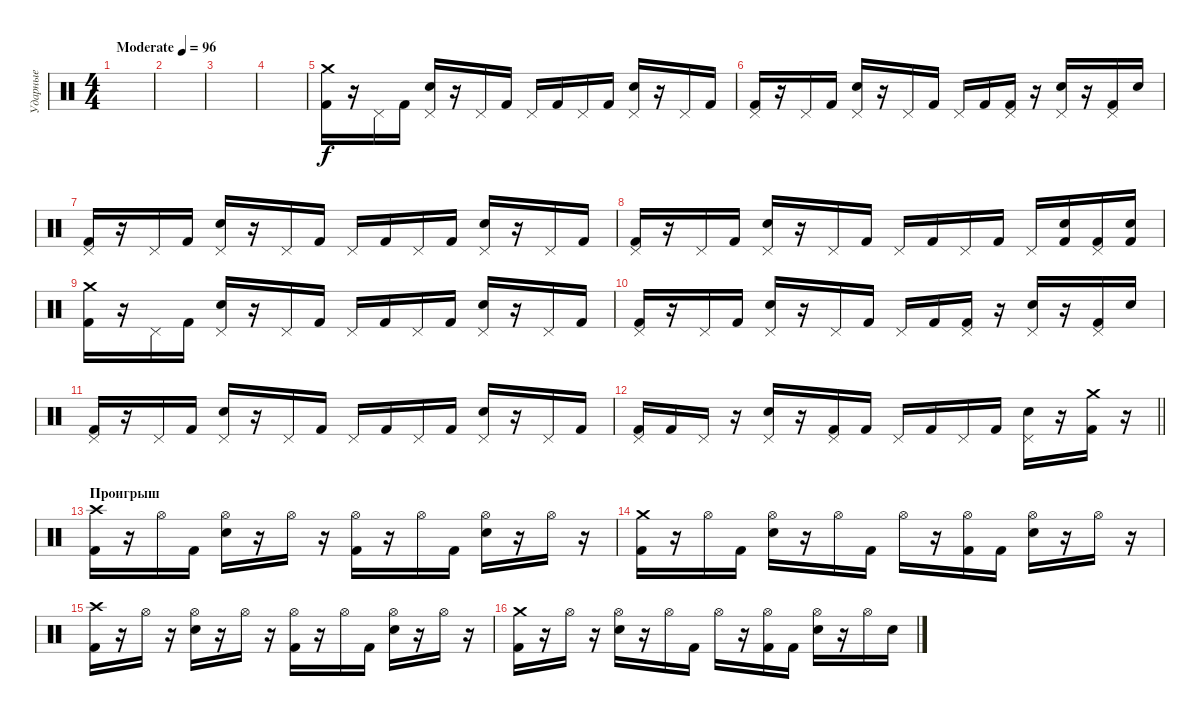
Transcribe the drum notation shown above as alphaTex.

\track ("Ударные" "Ударные") {instrument percussion}
\staff {score}
\articulation defaults
\ts (4 4)
\tempo (96 "Moderate")
\clef neutral
\ks c
|
|
|
|
("Crash medium (hit)" "Kick (hit) 2").16 r.16 "Pedal Hi-Hat (hit)".16 "Kick (hit) 2".16 ("Pedal Hi-Hat (hit)" "Electric Snare (hit)").16 r.16 "Pedal Hi-Hat (hit)".16 "Kick (hit) 2".16 "Pedal Hi-Hat (hit)".16 "Kick (hit) 2".16 "Pedal Hi-Hat (hit)".16 "Kick (hit) 2".16 ("Pedal Hi-Hat (hit)" "Electric Snare (hit)").16 r.16 "Pedal Hi-Hat (hit)".16 "Kick (hit) 2".16 |
("Pedal Hi-Hat (hit)" "Kick (hit) 2").16 r.16 "Pedal Hi-Hat (hit)".16 "Kick (hit) 2".16 ("Pedal Hi-Hat (hit)" "Electric Snare (hit)").16 r.16 "Pedal Hi-Hat (hit)".16 "Kick (hit) 2".16 "Pedal Hi-Hat (hit)".16 "Kick (hit) 2".16 ("Pedal Hi-Hat (hit)" "Kick (hit) 2").16 r.16 ("Pedal Hi-Hat (hit)" "Electric Snare (hit)").16 r.16 ("Pedal Hi-Hat (hit)" "Kick (hit) 2").16 "Electric Snare (hit)".16 |
("Pedal Hi-Hat (hit)" "Kick (hit) 2").16 r.16 "Pedal Hi-Hat (hit)".16 "Kick (hit) 2".16 ("Pedal Hi-Hat (hit)" "Electric Snare (hit)").16 r.16 "Pedal Hi-Hat (hit)".16 "Kick (hit) 2".16 "Pedal Hi-Hat (hit)".16 "Kick (hit) 2".16 "Pedal Hi-Hat (hit)".16 "Kick (hit) 2".16 ("Pedal Hi-Hat (hit)" "Electric Snare (hit)").16 r.16 "Pedal Hi-Hat (hit)".16 "Kick (hit) 2".16 |
("Pedal Hi-Hat (hit)" "Kick (hit) 2").16 r.16 "Pedal Hi-Hat (hit)".16 "Kick (hit) 2".16 ("Pedal Hi-Hat (hit)" "Electric Snare (hit)").16 r.16 "Pedal Hi-Hat (hit)".16 "Kick (hit) 2".16 "Pedal Hi-Hat (hit)".16 "Kick (hit) 2".16 "Pedal Hi-Hat (hit)".16 "Kick (hit) 2".16 "Pedal Hi-Hat (hit)".16 ("Kick (hit) 2" "Electric Snare (hit)").16 ("Pedal Hi-Hat (hit)" "Kick (hit) 2").16 ("Kick (hit) 2" "Electric Snare (hit)").16 |
("Crash medium (hit)" "Kick (hit) 2").16 r.16 "Pedal Hi-Hat (hit)".16 "Kick (hit) 2".16 ("Pedal Hi-Hat (hit)" "Electric Snare (hit)").16 r.16 "Pedal Hi-Hat (hit)".16 "Kick (hit) 2".16 "Pedal Hi-Hat (hit)".16 "Kick (hit) 2".16 "Pedal Hi-Hat (hit)".16 "Kick (hit) 2".16 ("Pedal Hi-Hat (hit)" "Electric Snare (hit)").16 r.16 "Pedal Hi-Hat (hit)".16 "Kick (hit) 2".16 |
("Pedal Hi-Hat (hit)" "Kick (hit) 2").16 r.16 "Pedal Hi-Hat (hit)".16 "Kick (hit) 2".16 ("Pedal Hi-Hat (hit)" "Electric Snare (hit)").16 r.16 "Pedal Hi-Hat (hit)".16 "Kick (hit) 2".16 "Pedal Hi-Hat (hit)".16 "Kick (hit) 2".16 ("Pedal Hi-Hat (hit)" "Kick (hit) 2").16 r.16 ("Pedal Hi-Hat (hit)" "Electric Snare (hit)").16 r.16 ("Pedal Hi-Hat (hit)" "Kick (hit) 2").16 "Electric Snare (hit)".16 |
("Pedal Hi-Hat (hit)" "Kick (hit) 2").16 r.16 "Pedal Hi-Hat (hit)".16 "Kick (hit) 2".16 ("Pedal Hi-Hat (hit)" "Electric Snare (hit)").16 r.16 "Pedal Hi-Hat (hit)".16 "Kick (hit) 2".16 "Pedal Hi-Hat (hit)".16 "Kick (hit) 2".16 "Pedal Hi-Hat (hit)".16 "Kick (hit) 2".16 ("Pedal Hi-Hat (hit)" "Electric Snare (hit)").16 r.16 "Pedal Hi-Hat (hit)".16 "Kick (hit) 2".16 |
\barLineRight lightlight
("Pedal Hi-Hat (hit)" "Kick (hit) 2").16 "Kick (hit) 2".16 "Pedal Hi-Hat (hit)".16 r.16 ("Pedal Hi-Hat (hit)" "Electric Snare (hit)").16 r.16 ("Pedal Hi-Hat (hit)" "Kick (hit) 2").16 "Kick (hit) 2".16 "Pedal Hi-Hat (hit)".16 "Kick (hit) 2".16 "Pedal Hi-Hat (hit)".16 "Kick (hit) 2".16 ("Pedal Hi-Hat (hit)" "Electric Snare (hit)").16 r.16 ("Crash medium (hit)" "Kick (hit) 2").16 r.16 |
\section ("" "Проигрыш")
("Crash high (hit)" "Kick (hit) 2").16 r.16 "Hi-Hat (open)".16 "Kick (hit) 2".16 ("Hi-Hat (open)" "Electric Snare (hit)").16 r.16 "Hi-Hat (open)".16 r.16 ("Hi-Hat (open)" "Kick (hit) 2").16 r.16 "Hi-Hat (open)".16 "Kick (hit) 2".16 ("Hi-Hat (open)" "Electric Snare (hit)").16 r.16 "Hi-Hat (open)".16 r.16 |
("Crash medium (hit)" "Kick (hit) 2").16 r.16 "Hi-Hat (open)".16 "Kick (hit) 2".16 ("Hi-Hat (open)" "Electric Snare (hit)").16 r.16 "Hi-Hat (open)".16 "Kick (hit) 2".16 "Hi-Hat (open)".16 r.16 ("Hi-Hat (open)" "Kick (hit) 2").16 "Kick (hit) 2".16 ("Hi-Hat (open)" "Electric Snare (hit)").16 r.16 "Hi-Hat (open)".16 r.16 |
("Crash high (hit)" "Kick (hit) 2").16 r.16 "Hi-Hat (open)".16 r.16 ("Hi-Hat (open)" "Electric Snare (hit)").16 r.16 "Hi-Hat (open)".16 r.16 ("Hi-Hat (open)" "Kick (hit) 2").16 r.16 "Hi-Hat (open)".16 "Kick (hit) 2".16 ("Hi-Hat (open)" "Electric Snare (hit)").16 r.16 "Hi-Hat (open)".16 r.16 |
("Crash medium (hit)" "Kick (hit) 2").16 r.16 "Hi-Hat (open)".16 r.16 ("Hi-Hat (open)" "Electric Snare (hit)").16 r.16 "Hi-Hat (open)".16 "Kick (hit) 2".16 "Hi-Hat (open)".16 r.16 ("Hi-Hat (open)" "Kick (hit) 2").16 "Kick (hit) 2".16 ("Hi-Hat (open)" "Electric Snare (hit)").16 r.16 "Hi-Hat (open)".16 "Electric Snare (hit)".16
